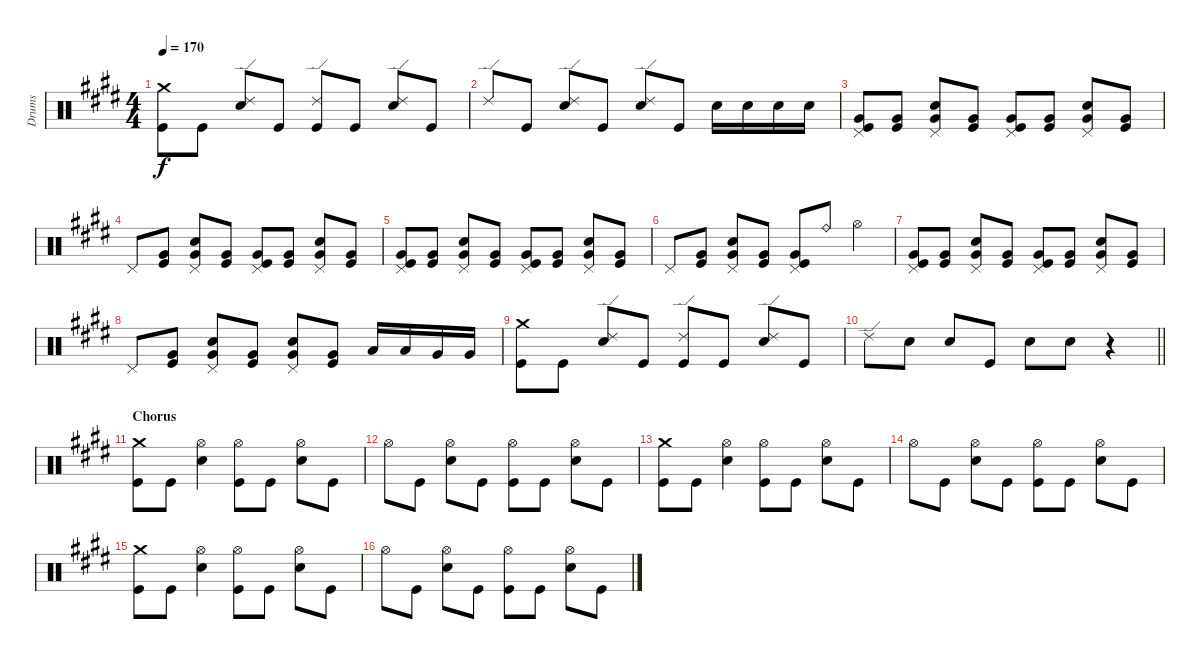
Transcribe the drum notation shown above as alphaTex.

\track ("Drums" "Drums") {instrument percussion}
\staff {score}
\articulation defaults
\ts (4 4)
\tempo 170
\clef neutral
\ks e
("Kick (hit)" "Crash medium (hit)").8{dy f} "Kick (hit)".8 ("Ride (edge) 2" "Snare (hit) 2").8 "Kick (hit)".8 ("Kick (hit)" "Ride (edge) 2").8 "Kick (hit)".8 ("Ride (edge) 2" "Snare (hit) 2").8 "Kick (hit)".8 |
"Ride (edge) 2".8 "Kick (hit)".8 ("Snare (hit) 2" "Ride (edge) 2").8 "Kick (hit)".8 ("Snare (hit) 2" "Ride (edge) 2").8 "Kick (hit)".8 "Snare (hit) 2".16 "Snare (hit) 2".16 "Snare (hit) 2".16 "Snare (hit) 2".16 |
("Kick (hit)" "Very Low Tom (hit)" "Pedal Hi-Hat (hit)").8 ("Kick (hit)" "Very Low Tom (hit)").8 ("Snare (hit) 2" "Very Low Tom (hit)" "Pedal Hi-Hat (hit)").8 ("Very Low Tom (hit)" "Kick (hit)").8 ("Kick (hit)" "Very Low Tom (hit)" "Pedal Hi-Hat (hit)").8 ("Kick (hit)" "Very Low Tom (hit)").8 ("Snare (hit) 2" "Very Low Tom (hit)" "Pedal Hi-Hat (hit)").8 ("Very Low Tom (hit)" "Kick (hit)").8 |
"Pedal Hi-Hat (hit)".8 ("Kick (hit)" "Very Low Tom (hit)").8 ("Very Low Tom (hit)" "Snare (hit) 2" "Pedal Hi-Hat (hit)").8 ("Kick (hit)" "Very Low Tom (hit)").8 ("Kick (hit)" "Very Low Tom (hit)" "Pedal Hi-Hat (hit)").8 ("Kick (hit)" "Very Low Tom (hit)").8 ("Very Low Tom (hit)" "Snare (hit) 2" "Pedal Hi-Hat (hit)").8 ("Kick (hit)" "Very Low Tom (hit)").8 |
("Kick (hit)" "Very Low Tom (hit)" "Pedal Hi-Hat (hit)").8 ("Kick (hit)" "Very Low Tom (hit)").8 ("Snare (hit) 2" "Very Low Tom (hit)" "Pedal Hi-Hat (hit)").8 ("Very Low Tom (hit)" "Kick (hit)").8 ("Kick (hit)" "Very Low Tom (hit)" "Pedal Hi-Hat (hit)").8 ("Kick (hit)" "Very Low Tom (hit)").8 ("Snare (hit) 2" "Very Low Tom (hit)" "Pedal Hi-Hat (hit)").8 ("Very Low Tom (hit)" "Kick (hit)").8 |
"Pedal Hi-Hat (hit)".8 ("Kick (hit)" "Very Low Tom (hit)").8 ("Very Low Tom (hit)" "Snare (hit) 2" "Pedal Hi-Hat (hit)").8 ("Kick (hit)" "Very Low Tom (hit)").8 ("Kick (hit)" "Very Low Tom (hit)" "Pedal Hi-Hat (hit)").8 "Ride (bell)".8 "Hi-Hat (open)".4 |
("Kick (hit)" "Very Low Tom (hit)" "Pedal Hi-Hat (hit)").8 ("Kick (hit)" "Very Low Tom (hit)").8 ("Snare (hit) 2" "Very Low Tom (hit)" "Pedal Hi-Hat (hit)").8 ("Very Low Tom (hit)" "Kick (hit)").8 ("Kick (hit)" "Very Low Tom (hit)" "Pedal Hi-Hat (hit)").8 ("Kick (hit)" "Very Low Tom (hit)").8 ("Snare (hit) 2" "Very Low Tom (hit)" "Pedal Hi-Hat (hit)").8 ("Very Low Tom (hit)" "Kick (hit)").8 |
"Pedal Hi-Hat (hit)".8 ("Kick (hit)" "Very Low Tom (hit)").8 ("Very Low Tom (hit)" "Snare (hit) 2" "Pedal Hi-Hat (hit)").8 ("Kick (hit)" "Very Low Tom (hit)").8 ("Very Low Tom (hit)" "Snare (hit) 2" "Pedal Hi-Hat (hit)").8 ("Kick (hit)" "Very Low Tom (hit)").8 "Low Tom (hit)".16 "Low Tom (hit)".16 "Very Low Tom (hit)".16 "Very Low Tom (hit)".16 |
("Kick (hit)" "Crash medium (hit)").8 "Kick (hit)".8 ("Ride (edge) 2" "Snare (hit) 2").8 "Kick (hit)".8 ("Kick (hit)" "Ride (edge) 2").8 "Kick (hit)".8 ("Ride (edge) 2" "Snare (hit) 2").8 "Kick (hit)".8 |
\barLineRight lightlight "Ride (edge) 2".8 "Snare (hit) 2".8 "Snare (hit) 2".8 "Kick (hit)".8 "Snare (hit) 2".8 "Snare (hit) 2".8
r.4 |
\section ("" "Chorus")
("Kick (hit)" "Crash medium (hit)").8 "Kick (hit)".8 ("Snare (hit) 2" "Hi-Hat (open)").4 ("Kick (hit)" "Hi-Hat (open)").8 "Kick (hit)".8 ("Snare (hit) 2" "Hi-Hat (open)").8 "Kick (hit)".8 |
"Hi-Hat (open)".8 "Kick (hit)".8 ("Snare (hit) 2" "Hi-Hat (open)").8 "Kick (hit)".8 ("Hi-Hat (open)" "Kick (hit)").8 "Kick (hit)".8 ("Snare (hit) 2" "Hi-Hat (open)").8 "Kick (hit)".8 |
("Kick (hit)" "Crash medium (hit)").8 "Kick (hit)".8 ("Snare (hit) 2" "Hi-Hat (open)").4 ("Kick (hit)" "Hi-Hat (open)").8 "Kick (hit)".8 ("Snare (hit) 2" "Hi-Hat (open)").8 "Kick (hit)".8 |
"Hi-Hat (open)".8 "Kick (hit)".8 ("Snare (hit) 2" "Hi-Hat (open)").8 "Kick (hit)".8 ("Hi-Hat (open)" "Kick (hit)").8 "Kick (hit)".8 ("Snare (hit) 2" "Hi-Hat (open)").8 "Kick (hit)".8 |
("Kick (hit)" "Crash medium (hit)").8 "Kick (hit)".8 ("Snare (hit) 2" "Hi-Hat (open)").4 ("Kick (hit)" "Hi-Hat (open)").8 "Kick (hit)".8 ("Snare (hit) 2" "Hi-Hat (open)").8 "Kick (hit)".8 |
"Hi-Hat (open)".8 "Kick (hit)".8 ("Snare (hit) 2" "Hi-Hat (open)").8 "Kick (hit)".8 ("Hi-Hat (open)" "Kick (hit)").8 "Kick (hit)".8 ("Snare (hit) 2" "Hi-Hat (open)").8 "Kick (hit)".8
